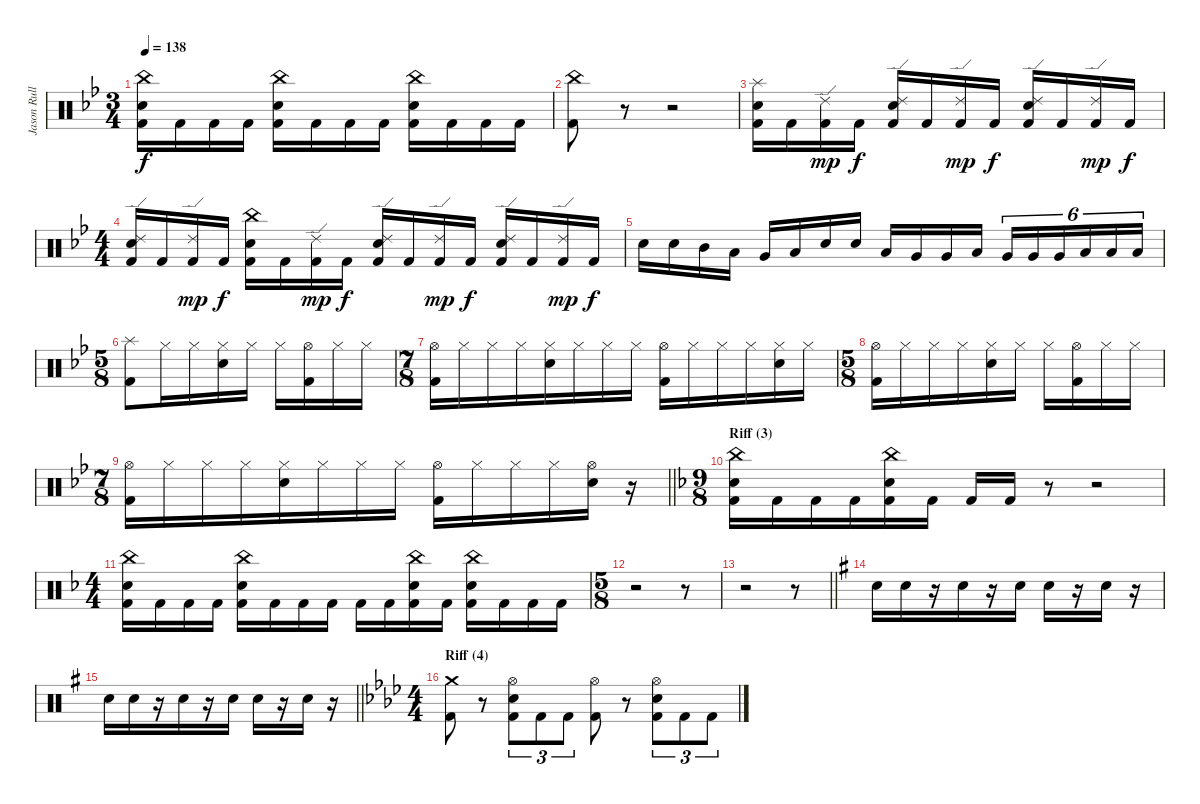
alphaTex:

\track ("Jason Rullo (drums)" "Jason Rull") {instrument percussion}
\staff {score}
\articulation defaults
\ts (3 4)
\tempo 138
\clef neutral
\ks gminor
("Kick (hit) 2" "Electric Snare (hit)" "China (hit)").16{dy f} "Kick (hit) 2".16 "Kick (hit) 2".16 "Kick (hit) 2".16 ("Kick (hit) 2" "Electric Snare (hit)" "China (hit)").16 "Kick (hit) 2".16 "Kick (hit) 2".16 "Kick (hit) 2".16 ("Kick (hit) 2" "Electric Snare (hit)" "China (hit)").16 "Kick (hit) 2".16 "Kick (hit) 2".16 "Kick (hit) 2".16 |
("Kick (hit) 2" "China (hit)").8 r.8 r.2 |
("Electric Snare (hit)" "Splash (hit)" "Kick (hit) 2").16 "Kick (hit) 2".16 ("Ride (edge) 2" "Kick (hit) 2").16{dy mp} "Kick (hit) 2".16{dy f} ("Ride (edge) 2" "Electric Snare (hit)" "Kick (hit) 2").16 "Kick (hit) 2".16 ("Ride (edge) 2" "Kick (hit) 2").16{dy mp} "Kick (hit) 2".16{dy f} ("Ride (edge) 2" "Electric Snare (hit)" "Kick (hit) 2").16 "Kick (hit) 2".16 ("Ride (edge) 2" "Kick (hit) 2").16{dy mp} "Kick (hit) 2".16{dy f} |
\ts (4 4)
("Ride (edge) 2" "Electric Snare (hit)" "Kick (hit) 2").16 "Kick (hit) 2".16 ("Ride (edge) 2" "Kick (hit) 2").16{dy mp} "Kick (hit) 2".16{dy f} ("Electric Snare (hit)" "China (hit)" "Kick (hit) 2").16 "Kick (hit) 2".16 ("Ride (edge) 2" "Kick (hit) 2").16{dy mp} "Kick (hit) 2".16{dy f} ("Ride (edge) 2" "Electric Snare (hit)" "Kick (hit) 2").16 "Kick (hit) 2".16 ("Ride (edge) 2" "Kick (hit) 2").16{dy mp} "Kick (hit) 2".16{dy f} ("Ride (edge) 2" "Electric Snare (hit)" "Kick (hit) 2").16 "Kick (hit) 2".16 ("Ride (edge) 2" "Kick (hit) 2").16{dy mp} "Kick (hit) 2".16{dy f} |
"Electric Snare (hit)".16 "Electric Snare (hit)".16 "Mid Tom (hit)".16 "Low Tom (hit)".16 "Very Low Tom (hit)".16 "Low Floor Tom (hit)".16 "Electric Snare (hit)".16 "Electric Snare (hit)".16 "Low Tom (hit)".16 "Very Low Tom (hit)".16 "Very Low Tom (hit)".16 "Low Floor Tom (hit)".16 "Very Low Tom (hit)".16{tu (6 4)} "Very Low Tom (hit)".16{tu (6 4)} "Very Low Tom (hit)".16{tu (6 4)} "Low Floor Tom (hit)".16{tu (6 4)} "Low Floor Tom (hit)".16{tu (6 4)} "Low Floor Tom (hit)".16{tu (6 4)} |
\ts (5 8)
("Splash (hit)" "Kick (hit) 2").8 "Hi-Hat (closed)".16 "Hi-Hat (closed)".16 ("Hi-Hat (closed)" "Electric Snare (hit)").16 "Hi-Hat (closed)".16 "Hi-Hat (closed)".16 ("Hi-Hat (open)" "Kick (hit) 2").16 "Hi-Hat (closed)".16 "Hi-Hat (closed)".16 |
\ts (7 8)
("Hi-Hat (open)" "Kick (hit) 2").16 "Hi-Hat (closed)".16 "Hi-Hat (closed)".16 "Hi-Hat (closed)".16 ("Hi-Hat (closed)" "Electric Snare (hit)").16 "Hi-Hat (closed)".16 "Hi-Hat (closed)".16 "Hi-Hat (closed)".16 ("Hi-Hat (open)" "Kick (hit) 2").16 "Hi-Hat (closed)".16 "Hi-Hat (closed)".16 "Hi-Hat (closed)".16 ("Hi-Hat (closed)" "Electric Snare (hit)").16 "Hi-Hat (closed)".16 |
\ts (5 8)
("Hi-Hat (open)" "Kick (hit) 2").16 "Hi-Hat (closed)".16 "Hi-Hat (closed)".16 "Hi-Hat (closed)".16 ("Hi-Hat (closed)" "Electric Snare (hit)").16 "Hi-Hat (closed)".16 "Hi-Hat (closed)".16 ("Hi-Hat (open)" "Kick (hit) 2").16 "Hi-Hat (closed)".16 "Hi-Hat (closed)".16 |
\ts (7 8)
\barLineRight lightlight
("Hi-Hat (open)" "Kick (hit) 2").16 "Hi-Hat (closed)".16 "Hi-Hat (closed)".16 "Hi-Hat (closed)".16 ("Hi-Hat (closed)" "Electric Snare (hit)").16 "Hi-Hat (closed)".16 "Hi-Hat (closed)".16 "Hi-Hat (closed)".16 ("Hi-Hat (open)" "Kick (hit) 2").16 "Hi-Hat (closed)".16 "Hi-Hat (closed)".16 "Hi-Hat (closed)".16 ("Hi-Hat (open)" "Electric Snare (hit)").16 r.16 |
\ts (9 8)
\section ("" "Riff (3)")
\ks f
("China (hit)" "Kick (hit) 2" "Electric Snare (hit)").16 "Kick (hit) 2".16 "Kick (hit) 2".16 "Kick (hit) 2".16 ("China (hit)" "Kick (hit) 2" "Electric Snare (hit)").16 "Kick (hit) 2".16 "Kick (hit) 2".16 "Kick (hit) 2".16 r.8 r.2 |
\ts (4 4)
("China (hit)" "Electric Snare (hit)" "Kick (hit) 2").16 "Kick (hit) 2".16 "Kick (hit) 2".16 "Kick (hit) 2".16 ("China (hit)" "Electric Snare (hit)" "Kick (hit) 2").16 "Kick (hit) 2".16 "Kick (hit) 2".16 "Kick (hit) 2".16 "Kick (hit) 2".16 "Kick (hit) 2".16 ("China (hit)" "Electric Snare (hit)" "Kick (hit) 2").16 "Kick (hit) 2".16 ("China (hit)" "Electric Snare (hit)" "Kick (hit) 2").16 "Kick (hit) 2".16 "Kick (hit) 2".16 "Kick (hit) 2".16 |
\ts (5 8)
r.2 r.8 |
\barLineRight lightlight
r.2 r.8 |
\ks g "Electric Snare (hit)".16 "Electric Snare (hit)".16
r.16 "Electric Snare (hit)".16 r.16 "Electric Snare (hit)".16 "Electric Snare (hit)".16 r.16 "Electric Snare (hit)".16 r.16 |
\barLineRight lightlight "Electric Snare (hit)".16 "Electric Snare (hit)".16
r.16 "Electric Snare (hit)".16 r.16 "Electric Snare (hit)".16 "Electric Snare (hit)".16 r.16 "Electric Snare (hit)".16 r.16 |
\ts (4 4)
\section ("" "Riff (4)")
\ks fminor
("Crash medium (hit)" "Kick (hit) 2").8 r.8 ("Hi-Hat (open)" "Electric Snare (hit)" "Kick (hit) 2").8{tu (3 2)} "Kick (hit) 2".8{tu (3 2)} "Kick (hit) 2".8{tu (3 2)} ("Hi-Hat (open)" "Kick (hit) 2").8 r.8 ("Hi-Hat (open)" "Kick (hit) 2" "Electric Snare (hit)").8{tu (3 2)} "Kick (hit) 2".8{tu (3 2)} "Kick (hit) 2".8{tu (3 2)}
